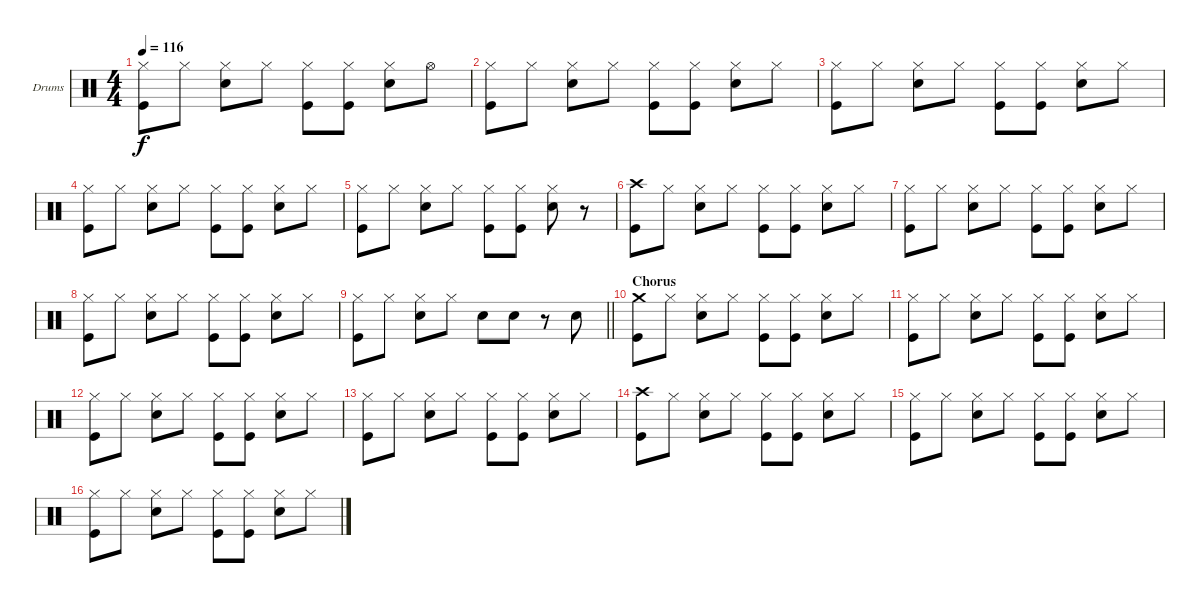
\bracketExtendMode groupsimilarinstruments
\firstSystemTrackNameOrientation horizontal
\otherSystemsTrackNameOrientation horizontal
\track ("Drumkit" "Drums") {instrument percussion}
\staff {score}
\articulation defaults
\ts (4 4)
\tempo 116
\clef neutral
\ks c
("Hi-Hat (closed)" "Kick (hit)").8{dy f} "Hi-Hat (closed)".8 ("Hi-Hat (closed)" "Snare (hit) 2").8 "Hi-Hat (closed)".8 ("Hi-Hat (closed)" "Kick (hit)").8 ("Hi-Hat (closed)" "Kick (hit)").8 ("Hi-Hat (closed)" "Snare (hit) 2").8 "Hi-Hat (open)".8 |
("Hi-Hat (closed)" "Kick (hit)").8 "Hi-Hat (closed)".8 ("Hi-Hat (closed)" "Snare (hit) 2").8 "Hi-Hat (closed)".8 ("Hi-Hat (closed)" "Kick (hit)").8 ("Hi-Hat (closed)" "Kick (hit)").8 ("Hi-Hat (closed)" "Snare (hit) 2").8 "Hi-Hat (closed)".8 |
("Hi-Hat (closed)" "Kick (hit)").8 "Hi-Hat (closed)".8 ("Hi-Hat (closed)" "Snare (hit) 2").8 "Hi-Hat (closed)".8 ("Hi-Hat (closed)" "Kick (hit)").8 ("Hi-Hat (closed)" "Kick (hit)").8 ("Hi-Hat (closed)" "Snare (hit) 2").8 "Hi-Hat (closed)".8 |
("Hi-Hat (closed)" "Kick (hit)").8 "Hi-Hat (closed)".8 ("Hi-Hat (closed)" "Snare (hit) 2").8 "Hi-Hat (closed)".8 ("Hi-Hat (closed)" "Kick (hit)").8 ("Hi-Hat (closed)" "Kick (hit)").8 ("Hi-Hat (closed)" "Snare (hit) 2").8 "Hi-Hat (closed)".8 |
("Hi-Hat (closed)" "Kick (hit)").8 "Hi-Hat (closed)".8 ("Hi-Hat (closed)" "Snare (hit) 2").8 "Hi-Hat (closed)".8 ("Hi-Hat (closed)" "Kick (hit)").8 ("Hi-Hat (closed)" "Kick (hit)").8 ("Hi-Hat (closed)" "Snare (hit) 2").8 r.8 |
("Crash high (hit)" "Kick (hit)").8 "Hi-Hat (closed)".8 ("Hi-Hat (closed)" "Snare (hit) 2").8 "Hi-Hat (closed)".8 ("Hi-Hat (closed)" "Kick (hit)").8 ("Hi-Hat (closed)" "Kick (hit)").8 ("Hi-Hat (closed)" "Snare (hit) 2").8 "Hi-Hat (closed)".8 |
("Hi-Hat (closed)" "Kick (hit)").8 "Hi-Hat (closed)".8 ("Hi-Hat (closed)" "Snare (hit) 2").8 "Hi-Hat (closed)".8 ("Hi-Hat (closed)" "Kick (hit)").8 ("Hi-Hat (closed)" "Kick (hit)").8 ("Hi-Hat (closed)" "Snare (hit) 2").8 "Hi-Hat (closed)".8 |
("Hi-Hat (closed)" "Kick (hit)").8 "Hi-Hat (closed)".8 ("Hi-Hat (closed)" "Snare (hit) 2").8 "Hi-Hat (closed)".8 ("Hi-Hat (closed)" "Kick (hit)").8 ("Hi-Hat (closed)" "Kick (hit)").8 ("Hi-Hat (closed)" "Snare (hit) 2").8 "Hi-Hat (closed)".8 |
\barLineRight lightlight
("Hi-Hat (closed)" "Kick (hit)").8 "Hi-Hat (closed)".8 ("Hi-Hat (closed)" "Snare (hit) 2").8 "Hi-Hat (closed)".8 "Snare (hit) 2".8 "Snare (hit) 2".8 r.8 "Snare (hit) 2".8 |
\section ("" "Chorus")
("Crash medium (hit)" "Kick (hit)").8 "Hi-Hat (closed)".8 ("Hi-Hat (closed)" "Snare (hit) 2").8 "Hi-Hat (closed)".8 ("Hi-Hat (closed)" "Kick (hit)").8 ("Hi-Hat (closed)" "Kick (hit)").8 ("Hi-Hat (closed)" "Snare (hit) 2").8 "Hi-Hat (closed)".8 |
("Hi-Hat (closed)" "Kick (hit)").8 "Hi-Hat (closed)".8 ("Hi-Hat (closed)" "Snare (hit) 2").8 "Hi-Hat (closed)".8 ("Hi-Hat (closed)" "Kick (hit)").8 ("Hi-Hat (closed)" "Kick (hit)").8 ("Hi-Hat (closed)" "Snare (hit) 2").8 "Hi-Hat (closed)".8 |
("Hi-Hat (closed)" "Kick (hit)").8 "Hi-Hat (closed)".8 ("Hi-Hat (closed)" "Snare (hit) 2").8 "Hi-Hat (closed)".8 ("Hi-Hat (closed)" "Kick (hit)").8 ("Hi-Hat (closed)" "Kick (hit)").8 ("Hi-Hat (closed)" "Snare (hit) 2").8 "Hi-Hat (closed)".8 |
("Hi-Hat (closed)" "Kick (hit)").8 "Hi-Hat (closed)".8 ("Hi-Hat (closed)" "Snare (hit) 2").8 "Hi-Hat (closed)".8 ("Hi-Hat (closed)" "Kick (hit)").8 ("Hi-Hat (closed)" "Kick (hit)").8 ("Hi-Hat (closed)" "Snare (hit) 2").8 "Hi-Hat (closed)".8 |
("Crash high (hit)" "Kick (hit)").8 "Hi-Hat (closed)".8 ("Hi-Hat (closed)" "Snare (hit) 2").8 "Hi-Hat (closed)".8 ("Hi-Hat (closed)" "Kick (hit)").8 ("Hi-Hat (closed)" "Kick (hit)").8 ("Hi-Hat (closed)" "Snare (hit) 2").8 "Hi-Hat (closed)".8 |
("Hi-Hat (closed)" "Kick (hit)").8 "Hi-Hat (closed)".8 ("Hi-Hat (closed)" "Snare (hit) 2").8 "Hi-Hat (closed)".8 ("Hi-Hat (closed)" "Kick (hit)").8 ("Hi-Hat (closed)" "Kick (hit)").8 ("Hi-Hat (closed)" "Snare (hit) 2").8 "Hi-Hat (closed)".8 |
("Hi-Hat (closed)" "Kick (hit)").8 "Hi-Hat (closed)".8 ("Hi-Hat (closed)" "Snare (hit) 2").8 "Hi-Hat (closed)".8 ("Hi-Hat (closed)" "Kick (hit)").8 ("Hi-Hat (closed)" "Kick (hit)").8 ("Hi-Hat (closed)" "Snare (hit) 2").8 "Hi-Hat (closed)".8
